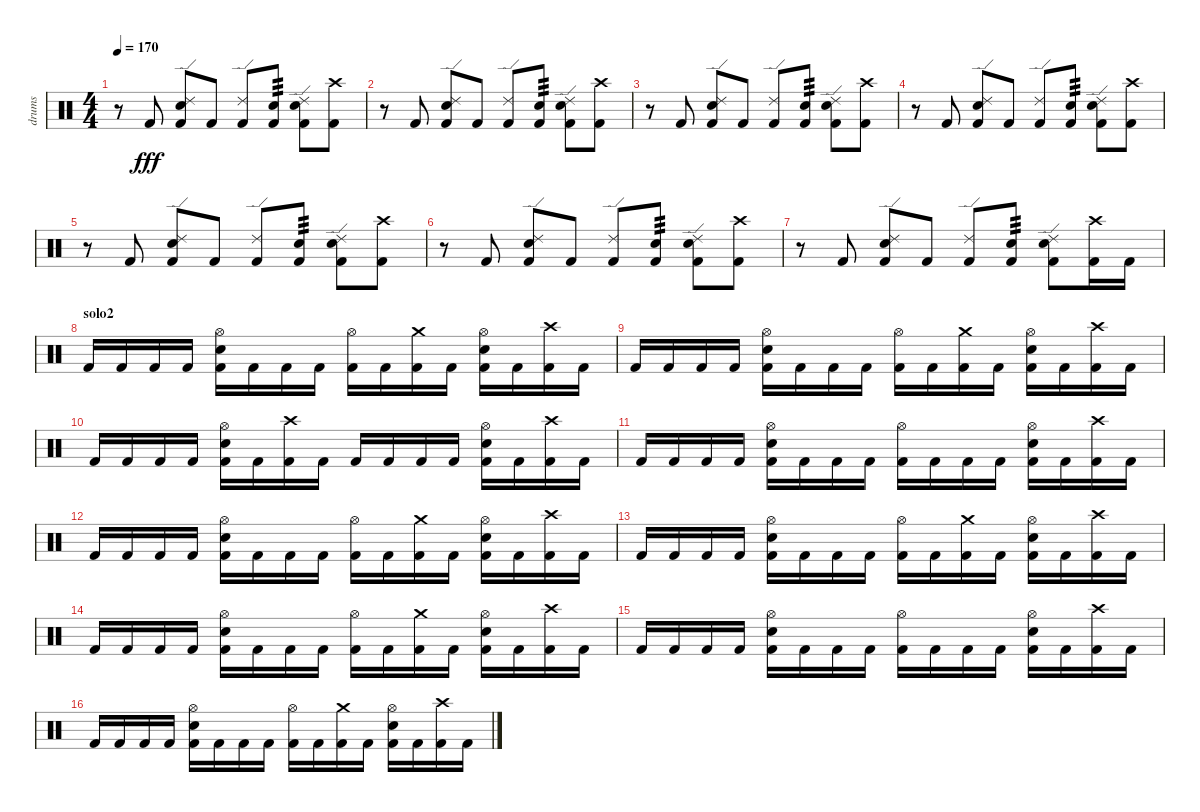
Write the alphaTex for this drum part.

\track ("drums" "drums") {instrument percussion}
\staff {score}
\articulation defaults
\ts (4 4)
\tempo 170
\clef neutral
\ks c
r.8{dy fff} "Kick (hit) 2".8 ("Ride (edge) 2" "Snare (hit) 2" "Kick (hit) 2").8 "Kick (hit) 2".8 ("Ride (edge) 2" "Kick (hit) 2").8 ("Snare (hit) 2" "Kick (hit) 2").8{tp 3} ("Ride (edge) 2" "Snare (hit) 2" "Kick (hit) 2").8 ("Crash high (hit)" "Kick (hit) 2").8 |
r.8 "Kick (hit) 2".8 ("Ride (edge) 2" "Snare (hit) 2" "Kick (hit) 2").8 "Kick (hit) 2".8 ("Ride (edge) 2" "Kick (hit) 2").8 ("Snare (hit) 2" "Kick (hit) 2").8{tp 3} ("Ride (edge) 2" "Snare (hit) 2" "Kick (hit) 2").8 ("Crash high (hit)" "Kick (hit) 2").8 |
r.8 "Kick (hit) 2".8 ("Ride (edge) 2" "Snare (hit) 2" "Kick (hit) 2").8 "Kick (hit) 2".8 ("Ride (edge) 2" "Kick (hit) 2").8 ("Snare (hit) 2" "Kick (hit) 2").8{tp 3} ("Ride (edge) 2" "Snare (hit) 2" "Kick (hit) 2").8 ("Crash high (hit)" "Kick (hit) 2").8 |
r.8 "Kick (hit) 2".8 ("Ride (edge) 2" "Snare (hit) 2" "Kick (hit) 2").8 "Kick (hit) 2".8 ("Ride (edge) 2" "Kick (hit) 2").8 ("Snare (hit) 2" "Kick (hit) 2").8{tp 3} ("Ride (edge) 2" "Snare (hit) 2" "Kick (hit) 2").8 ("Crash high (hit)" "Kick (hit) 2").8 |
r.8 "Kick (hit) 2".8 ("Ride (edge) 2" "Snare (hit) 2" "Kick (hit) 2").8 "Kick (hit) 2".8 ("Ride (edge) 2" "Kick (hit) 2").8 ("Snare (hit) 2" "Kick (hit) 2").8{tp 3} ("Ride (edge) 2" "Snare (hit) 2" "Kick (hit) 2").8 ("Crash high (hit)" "Kick (hit) 2").8 |
r.8 "Kick (hit) 2".8 ("Ride (edge) 2" "Snare (hit) 2" "Kick (hit) 2").8 "Kick (hit) 2".8 ("Ride (edge) 2" "Kick (hit) 2").8 ("Snare (hit) 2" "Kick (hit) 2").8{tp 3} ("Ride (edge) 2" "Snare (hit) 2" "Kick (hit) 2").8 ("Crash high (hit)" "Kick (hit) 2").8 |
r.8 "Kick (hit) 2".8 ("Ride (edge) 2" "Snare (hit) 2" "Kick (hit) 2").8 "Kick (hit) 2".8 ("Ride (edge) 2" "Kick (hit) 2").8 ("Snare (hit) 2" "Kick (hit) 2").8{tp 3} ("Ride (edge) 2" "Snare (hit) 2" "Kick (hit) 2").8 ("Crash high (hit)" "Kick (hit) 2").16 "Kick (hit) 2".16 |
\section ("" "solo2")
"Kick (hit) 2".16 "Kick (hit) 2".16 "Kick (hit) 2".16 "Kick (hit) 2".16 ("Hi-Hat (open)" "Snare (hit) 2" "Kick (hit) 2").16 "Kick (hit) 2".16 "Kick (hit) 2".16 "Kick (hit) 2".16 ("Hi-Hat (open)" "Kick (hit) 2").16 "Kick (hit) 2".16 ("Crash medium (hit)" "Kick (hit) 2").16 "Kick (hit) 2".16 ("Hi-Hat (open)" "Snare (hit) 2" "Kick (hit) 2").16 "Kick (hit) 2".16 ("Crash high (hit)" "Kick (hit) 2").16 "Kick (hit) 2".16 |
"Kick (hit) 2".16 "Kick (hit) 2".16 "Kick (hit) 2".16 "Kick (hit) 2".16 ("Hi-Hat (open)" "Snare (hit) 2" "Kick (hit) 2").16 "Kick (hit) 2".16 "Kick (hit) 2".16 "Kick (hit) 2".16 ("Hi-Hat (open)" "Kick (hit) 2").16 "Kick (hit) 2".16 ("Crash medium (hit)" "Kick (hit) 2").16 "Kick (hit) 2".16 ("Hi-Hat (open)" "Snare (hit) 2" "Kick (hit) 2").16 "Kick (hit) 2".16 ("Crash high (hit)" "Kick (hit) 2").16 "Kick (hit) 2".16 |
"Kick (hit) 2".16 "Kick (hit) 2".16 "Kick (hit) 2".16 "Kick (hit) 2".16 ("Hi-Hat (open)" "Snare (hit) 2" "Kick (hit) 2").16 "Kick (hit) 2".16 ("Crash high (hit)" "Kick (hit) 2").16 "Kick (hit) 2".16 "Kick (hit) 2".16 "Kick (hit) 2".16 "Kick (hit) 2".16 "Kick (hit) 2".16 ("Hi-Hat (open)" "Snare (hit) 2" "Kick (hit) 2").16 "Kick (hit) 2".16 ("Crash high (hit)" "Kick (hit) 2").16 "Kick (hit) 2".16 |
"Kick (hit) 2".16 "Kick (hit) 2".16 "Kick (hit) 2".16 "Kick (hit) 2".16 ("Hi-Hat (open)" "Snare (hit) 2" "Kick (hit) 2").16 "Kick (hit) 2".16 "Kick (hit) 2".16 "Kick (hit) 2".16 ("Hi-Hat (open)" "Kick (hit) 2").16 "Kick (hit) 2".16 "Kick (hit) 2".16 "Kick (hit) 2".16 ("Hi-Hat (open)" "Snare (hit) 2" "Kick (hit) 2").16 "Kick (hit) 2".16 ("Crash high (hit)" "Kick (hit) 2").16 "Kick (hit) 2".16 |
"Kick (hit) 2".16 "Kick (hit) 2".16 "Kick (hit) 2".16 "Kick (hit) 2".16 ("Hi-Hat (open)" "Snare (hit) 2" "Kick (hit) 2").16 "Kick (hit) 2".16 "Kick (hit) 2".16 "Kick (hit) 2".16 ("Hi-Hat (open)" "Kick (hit) 2").16 "Kick (hit) 2".16 ("Crash medium (hit)" "Kick (hit) 2").16 "Kick (hit) 2".16 ("Hi-Hat (open)" "Snare (hit) 2" "Kick (hit) 2").16 "Kick (hit) 2".16 ("Crash high (hit)" "Kick (hit) 2").16 "Kick (hit) 2".16 |
"Kick (hit) 2".16 "Kick (hit) 2".16 "Kick (hit) 2".16 "Kick (hit) 2".16 ("Hi-Hat (open)" "Snare (hit) 2" "Kick (hit) 2").16 "Kick (hit) 2".16 "Kick (hit) 2".16 "Kick (hit) 2".16 ("Hi-Hat (open)" "Kick (hit) 2").16 "Kick (hit) 2".16 ("Crash medium (hit)" "Kick (hit) 2").16 "Kick (hit) 2".16 ("Hi-Hat (open)" "Snare (hit) 2" "Kick (hit) 2").16 "Kick (hit) 2".16 ("Crash high (hit)" "Kick (hit) 2").16 "Kick (hit) 2".16 |
"Kick (hit) 2".16 "Kick (hit) 2".16 "Kick (hit) 2".16 "Kick (hit) 2".16 ("Hi-Hat (open)" "Snare (hit) 2" "Kick (hit) 2").16 "Kick (hit) 2".16 "Kick (hit) 2".16 "Kick (hit) 2".16 ("Hi-Hat (open)" "Kick (hit) 2").16 "Kick (hit) 2".16 ("Crash medium (hit)" "Kick (hit) 2").16 "Kick (hit) 2".16 ("Hi-Hat (open)" "Snare (hit) 2" "Kick (hit) 2").16 "Kick (hit) 2".16 ("Crash high (hit)" "Kick (hit) 2").16 "Kick (hit) 2".16 |
"Kick (hit) 2".16 "Kick (hit) 2".16 "Kick (hit) 2".16 "Kick (hit) 2".16 ("Hi-Hat (open)" "Snare (hit) 2" "Kick (hit) 2").16 "Kick (hit) 2".16 "Kick (hit) 2".16 "Kick (hit) 2".16 ("Hi-Hat (open)" "Kick (hit) 2").16 "Kick (hit) 2".16 "Kick (hit) 2".16 "Kick (hit) 2".16 ("Hi-Hat (open)" "Snare (hit) 2" "Kick (hit) 2").16 "Kick (hit) 2".16 ("Crash high (hit)" "Kick (hit) 2").16 "Kick (hit) 2".16 |
"Kick (hit) 2".16 "Kick (hit) 2".16 "Kick (hit) 2".16 "Kick (hit) 2".16 ("Hi-Hat (open)" "Snare (hit) 2" "Kick (hit) 2").16 "Kick (hit) 2".16 "Kick (hit) 2".16 "Kick (hit) 2".16 ("Hi-Hat (open)" "Kick (hit) 2").16 "Kick (hit) 2".16 ("Crash medium (hit)" "Kick (hit) 2").16 "Kick (hit) 2".16 ("Hi-Hat (open)" "Snare (hit) 2" "Kick (hit) 2").16 "Kick (hit) 2".16 ("Crash high (hit)" "Kick (hit) 2").16 "Kick (hit) 2".16
